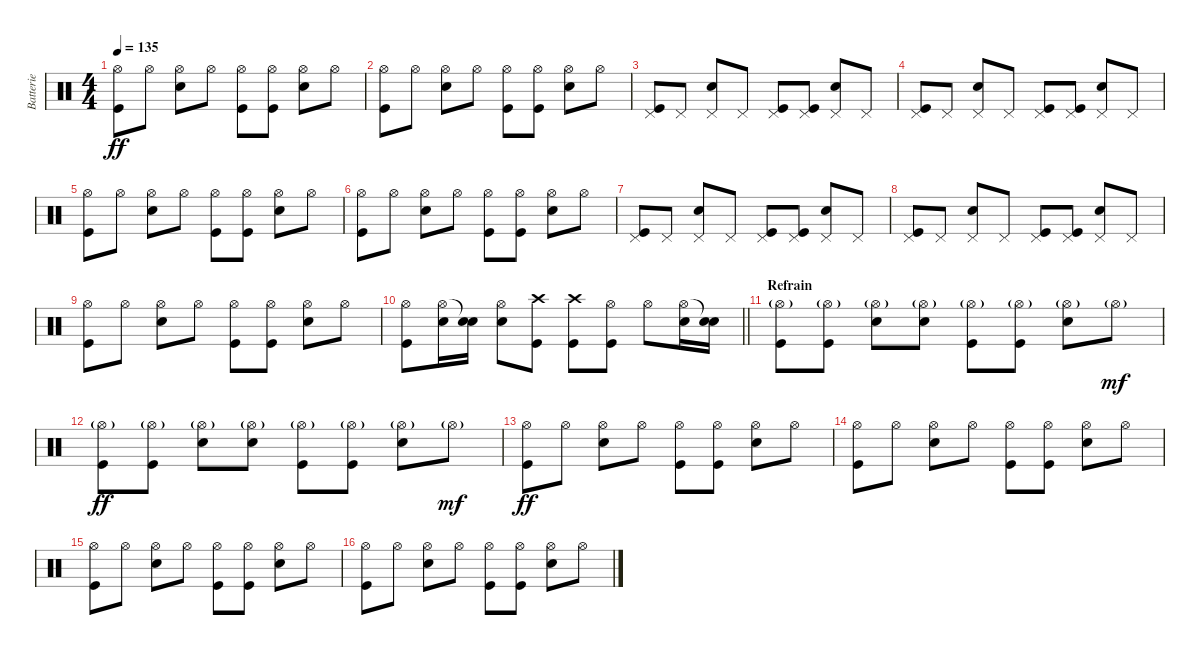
\track ("Batterie" "Batterie") {instrument percussion}
\staff {score}
\articulation defaults
\ts (4 4)
\tempo 135
\clef neutral
\ks c
("Hi-Hat (open)" "Kick (hit)").8{dy ff} "Hi-Hat (open)".8 ("Hi-Hat (open)" "Electric Snare (hit)").8 "Hi-Hat (open)".8 ("Hi-Hat (open)" "Kick (hit)").8 ("Hi-Hat (open)" "Kick (hit)").8 ("Hi-Hat (open)" "Electric Snare (hit)").8 "Hi-Hat (open)".8 |
("Hi-Hat (open)" "Kick (hit)").8 "Hi-Hat (open)".8 ("Hi-Hat (open)" "Electric Snare (hit)").8 "Hi-Hat (open)".8 ("Hi-Hat (open)" "Kick (hit)").8 ("Hi-Hat (open)" "Kick (hit)").8 ("Hi-Hat (open)" "Electric Snare (hit)").8 "Hi-Hat (open)".8 |
("Pedal Hi-Hat (hit)" "Kick (hit)").8 "Pedal Hi-Hat (hit)".8 ("Pedal Hi-Hat (hit)" "Electric Snare (hit)").8 "Pedal Hi-Hat (hit)".8 ("Pedal Hi-Hat (hit)" "Kick (hit)").8 ("Pedal Hi-Hat (hit)" "Kick (hit)").8 ("Pedal Hi-Hat (hit)" "Electric Snare (hit)").8 "Pedal Hi-Hat (hit)".8 |
("Pedal Hi-Hat (hit)" "Kick (hit)").8 "Pedal Hi-Hat (hit)".8 ("Pedal Hi-Hat (hit)" "Electric Snare (hit)").8 "Pedal Hi-Hat (hit)".8 ("Pedal Hi-Hat (hit)" "Kick (hit)").8 ("Pedal Hi-Hat (hit)" "Kick (hit)").8 ("Pedal Hi-Hat (hit)" "Electric Snare (hit)").8 "Pedal Hi-Hat (hit)".8 |
("Hi-Hat (open)" "Kick (hit)").8 "Hi-Hat (open)".8 ("Hi-Hat (open)" "Electric Snare (hit)").8 "Hi-Hat (open)".8 ("Hi-Hat (open)" "Kick (hit)").8 ("Hi-Hat (open)" "Kick (hit)").8 ("Hi-Hat (open)" "Electric Snare (hit)").8 "Hi-Hat (open)".8 |
("Hi-Hat (open)" "Kick (hit)").8 "Hi-Hat (open)".8 ("Hi-Hat (open)" "Electric Snare (hit)").8 "Hi-Hat (open)".8 ("Hi-Hat (open)" "Kick (hit)").8 ("Hi-Hat (open)" "Kick (hit)").8 ("Hi-Hat (open)" "Electric Snare (hit)").8 "Hi-Hat (open)".8 |
("Pedal Hi-Hat (hit)" "Kick (hit)").8 "Pedal Hi-Hat (hit)".8 ("Pedal Hi-Hat (hit)" "Electric Snare (hit)").8 "Pedal Hi-Hat (hit)".8 ("Pedal Hi-Hat (hit)" "Kick (hit)").8 ("Pedal Hi-Hat (hit)" "Kick (hit)").8 ("Pedal Hi-Hat (hit)" "Electric Snare (hit)").8 "Pedal Hi-Hat (hit)".8 |
("Pedal Hi-Hat (hit)" "Kick (hit)").8 "Pedal Hi-Hat (hit)".8 ("Pedal Hi-Hat (hit)" "Electric Snare (hit)").8 "Pedal Hi-Hat (hit)".8 ("Pedal Hi-Hat (hit)" "Kick (hit)").8 ("Pedal Hi-Hat (hit)" "Kick (hit)").8 ("Pedal Hi-Hat (hit)" "Electric Snare (hit)").8 "Pedal Hi-Hat (hit)".8 |
("Hi-Hat (open)" "Kick (hit)").8 "Hi-Hat (open)".8 ("Hi-Hat (open)" "Electric Snare (hit)").8 "Hi-Hat (open)".8 ("Hi-Hat (open)" "Kick (hit)").8 ("Hi-Hat (open)" "Kick (hit)").8 ("Hi-Hat (open)" "Electric Snare (hit)").8 "Hi-Hat (open)".8 |
\barLineRight lightlight
("Hi-Hat (open)" "Kick (hit)").8 ("Hi-Hat (open)" "Electric Snare (hit)").16 ("Snare (hit)"{t} "Electric Snare (hit)").16 ("Hi-Hat (open)" "Electric Snare (hit)").8 ("Crash high (hit)" "Kick (hit)").8 ("Crash high (hit)" "Kick (hit)").8 ("Hi-Hat (open)" "Kick (hit)").8 "Hi-Hat (open)".8 ("Hi-Hat (open)" "Electric Snare (hit)").16 ("Snare (hit)"{t} "Electric Snare (hit)").16 |
\section ("" "Refrain")
("Hi-Hat (open)"{g} "Kick (hit)").8 ("Hi-Hat (open)"{g} "Kick (hit)").8 ("Hi-Hat (open)"{g} "Electric Snare (hit)").8 ("Hi-Hat (open)"{g} "Electric Snare (hit)").8 ("Hi-Hat (open)"{g} "Kick (hit)").8 ("Hi-Hat (open)"{g} "Kick (hit)").8 ("Hi-Hat (open)"{g} "Electric Snare (hit)").8 "Hi-Hat (open)"{g}.8{dy mf} |
("Hi-Hat (open)"{g} "Kick (hit)").8{dy ff} ("Hi-Hat (open)"{g} "Kick (hit)").8 ("Hi-Hat (open)"{g} "Electric Snare (hit)").8 ("Hi-Hat (open)"{g} "Electric Snare (hit)").8 ("Hi-Hat (open)"{g} "Kick (hit)").8 ("Hi-Hat (open)"{g} "Kick (hit)").8 ("Hi-Hat (open)"{g} "Electric Snare (hit)").8 "Hi-Hat (open)"{g}.8{dy mf} |
("Hi-Hat (open)" "Kick (hit)").8{dy ff} "Hi-Hat (open)".8 ("Hi-Hat (open)" "Electric Snare (hit)").8 "Hi-Hat (open)".8 ("Hi-Hat (open)" "Kick (hit)").8 ("Hi-Hat (open)" "Kick (hit)").8 ("Hi-Hat (open)" "Electric Snare (hit)").8 "Hi-Hat (open)".8 |
("Hi-Hat (open)" "Kick (hit)").8 "Hi-Hat (open)".8 ("Hi-Hat (open)" "Electric Snare (hit)").8 "Hi-Hat (open)".8 ("Hi-Hat (open)" "Kick (hit)").8 ("Hi-Hat (open)" "Kick (hit)").8 ("Hi-Hat (open)" "Electric Snare (hit)").8 "Hi-Hat (open)".8 |
("Hi-Hat (open)" "Kick (hit)").8 "Hi-Hat (open)".8 ("Hi-Hat (open)" "Electric Snare (hit)").8 "Hi-Hat (open)".8 ("Hi-Hat (open)" "Kick (hit)").8 ("Hi-Hat (open)" "Kick (hit)").8 ("Hi-Hat (open)" "Electric Snare (hit)").8 "Hi-Hat (open)".8 |
("Hi-Hat (open)" "Kick (hit)").8 "Hi-Hat (open)".8 ("Hi-Hat (open)" "Electric Snare (hit)").8 "Hi-Hat (open)".8 ("Hi-Hat (open)" "Kick (hit)").8 ("Hi-Hat (open)" "Kick (hit)").8 ("Hi-Hat (open)" "Electric Snare (hit)").8 "Hi-Hat (open)".8
